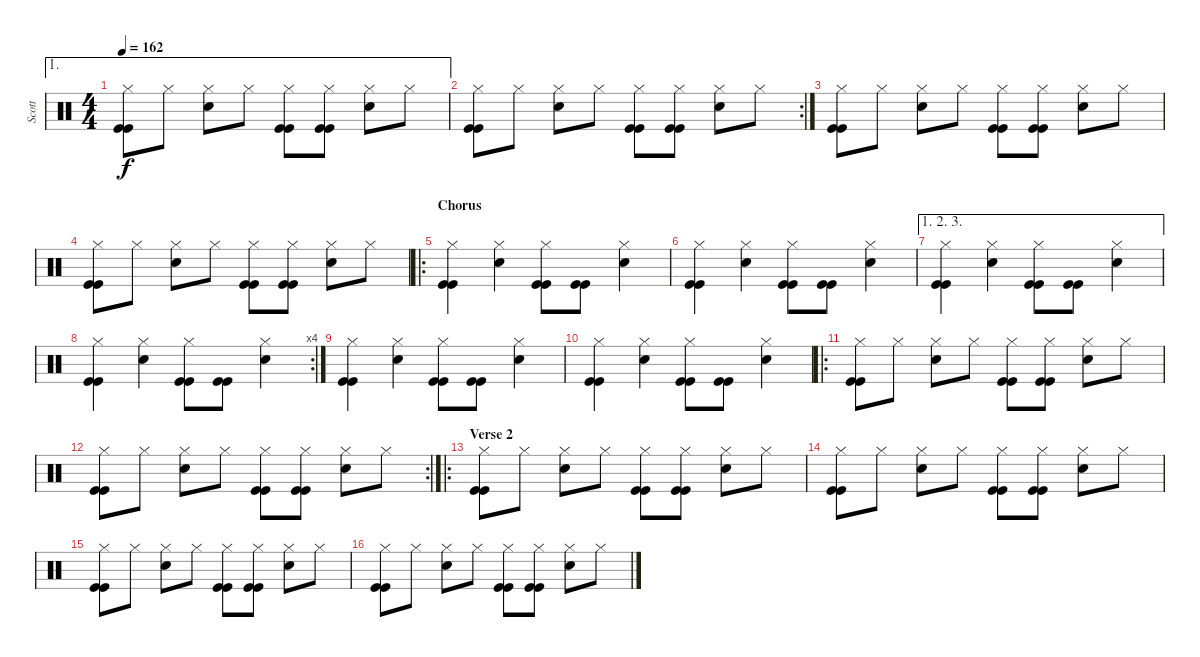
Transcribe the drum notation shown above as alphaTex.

\track ("Scott" "Scott") {instrument percussion}
\staff {score}
\articulation defaults
\ae 1
\ts (4 4)
\tempo 162
\clef neutral
\ks c
("Hi-Hat (closed)" "Kick (hit)" "Kick (hit)").8{dy f} "Hi-Hat (closed)".8 ("Hi-Hat (closed)" "Snare (hit) 2").8 "Hi-Hat (closed)".8 ("Hi-Hat (closed)" "Kick (hit)" "Kick (hit)").8 ("Hi-Hat (closed)" "Kick (hit)" "Kick (hit)").8 ("Hi-Hat (closed)" "Snare (hit) 2").8 "Hi-Hat (closed)".8 |
\rc 2
("Hi-Hat (closed)" "Kick (hit)" "Kick (hit)").8 "Hi-Hat (closed)".8 ("Hi-Hat (closed)" "Snare (hit) 2").8 "Hi-Hat (closed)".8 ("Hi-Hat (closed)" "Kick (hit)" "Kick (hit)").8 ("Hi-Hat (closed)" "Kick (hit)" "Kick (hit)").8 ("Hi-Hat (closed)" "Snare (hit) 2").8 "Hi-Hat (closed)".8 |
("Hi-Hat (closed)" "Kick (hit)" "Kick (hit)").8 "Hi-Hat (closed)".8 ("Hi-Hat (closed)" "Snare (hit) 2").8 "Hi-Hat (closed)".8 ("Hi-Hat (closed)" "Kick (hit)" "Kick (hit)").8 ("Hi-Hat (closed)" "Kick (hit)" "Kick (hit)").8 ("Hi-Hat (closed)" "Snare (hit) 2").8 "Hi-Hat (closed)".8 |
("Hi-Hat (closed)" "Kick (hit)" "Kick (hit)").8 "Hi-Hat (closed)".8 ("Hi-Hat (closed)" "Snare (hit) 2").8 "Hi-Hat (closed)".8 ("Hi-Hat (closed)" "Kick (hit)" "Kick (hit)").8 ("Hi-Hat (closed)" "Kick (hit)" "Kick (hit)").8 ("Hi-Hat (closed)" "Snare (hit) 2").8 "Hi-Hat (closed)".8 |
\ro
\section ("" "Chorus")
("Hi-Hat (closed)" "Kick (hit)" "Kick (hit)").4 ("Hi-Hat (closed)" "Snare (hit) 2").4 ("Hi-Hat (closed)" "Kick (hit)" "Kick (hit)").8 ("Kick (hit)" "Kick (hit)").8 ("Hi-Hat (closed)" "Snare (hit) 2").4 |
("Hi-Hat (closed)" "Kick (hit)" "Kick (hit)").4 ("Hi-Hat (closed)" "Snare (hit) 2").4 ("Hi-Hat (closed)" "Kick (hit)" "Kick (hit)").8 ("Kick (hit)" "Kick (hit)").8 ("Hi-Hat (closed)" "Snare (hit) 2").4 |
\ae (1 2 3)
("Hi-Hat (closed)" "Kick (hit)" "Kick (hit)").4 ("Hi-Hat (closed)" "Snare (hit) 2").4 ("Hi-Hat (closed)" "Kick (hit)" "Kick (hit)").8 ("Kick (hit)" "Kick (hit)").8 ("Hi-Hat (closed)" "Snare (hit) 2").4 |
\rc 4
("Hi-Hat (closed)" "Kick (hit)" "Kick (hit)").4 ("Hi-Hat (closed)" "Snare (hit) 2").4 ("Hi-Hat (closed)" "Kick (hit)" "Kick (hit)").8 ("Kick (hit)" "Kick (hit)").8 ("Hi-Hat (closed)" "Snare (hit) 2").4 |
("Hi-Hat (closed)" "Kick (hit)" "Kick (hit)").4 ("Hi-Hat (closed)" "Snare (hit) 2").4 ("Hi-Hat (closed)" "Kick (hit)" "Kick (hit)").8 ("Kick (hit)" "Kick (hit)").8 ("Hi-Hat (closed)" "Snare (hit) 2").4 |
("Hi-Hat (closed)" "Kick (hit)" "Kick (hit)").4 ("Hi-Hat (closed)" "Snare (hit) 2").4 ("Hi-Hat (closed)" "Kick (hit)" "Kick (hit)").8 ("Kick (hit)" "Kick (hit)").8 ("Hi-Hat (closed)" "Snare (hit) 2").4 |
\ro
("Hi-Hat (closed)" "Kick (hit)" "Kick (hit)").8 "Hi-Hat (closed)".8 ("Hi-Hat (closed)" "Snare (hit) 2").8 "Hi-Hat (closed)".8 ("Hi-Hat (closed)" "Kick (hit)" "Kick (hit)").8 ("Hi-Hat (closed)" "Kick (hit)" "Kick (hit)").8 ("Hi-Hat (closed)" "Snare (hit) 2").8 "Hi-Hat (closed)".8 |
\rc 2
("Hi-Hat (closed)" "Kick (hit)" "Kick (hit)").8 "Hi-Hat (closed)".8 ("Hi-Hat (closed)" "Snare (hit) 2").8 "Hi-Hat (closed)".8 ("Hi-Hat (closed)" "Kick (hit)" "Kick (hit)").8 ("Hi-Hat (closed)" "Kick (hit)" "Kick (hit)").8 ("Hi-Hat (closed)" "Snare (hit) 2").8 "Hi-Hat (closed)".8 |
\ro
\section ("" "Verse 2")
("Hi-Hat (closed)" "Kick (hit)" "Kick (hit)").8 "Hi-Hat (closed)".8 ("Hi-Hat (closed)" "Snare (hit) 2").8 "Hi-Hat (closed)".8 ("Hi-Hat (closed)" "Kick (hit)" "Kick (hit)").8 ("Hi-Hat (closed)" "Kick (hit)" "Kick (hit)").8 ("Hi-Hat (closed)" "Snare (hit) 2").8 "Hi-Hat (closed)".8 |
("Hi-Hat (closed)" "Kick (hit)" "Kick (hit)").8 "Hi-Hat (closed)".8 ("Hi-Hat (closed)" "Snare (hit) 2").8 "Hi-Hat (closed)".8 ("Hi-Hat (closed)" "Kick (hit)" "Kick (hit)").8 ("Hi-Hat (closed)" "Kick (hit)" "Kick (hit)").8 ("Hi-Hat (closed)" "Snare (hit) 2").8 "Hi-Hat (closed)".8 |
("Hi-Hat (closed)" "Kick (hit)" "Kick (hit)").8 "Hi-Hat (closed)".8 ("Hi-Hat (closed)" "Snare (hit) 2").8 "Hi-Hat (closed)".8 ("Hi-Hat (closed)" "Kick (hit)" "Kick (hit)").8 ("Hi-Hat (closed)" "Kick (hit)" "Kick (hit)").8 ("Hi-Hat (closed)" "Snare (hit) 2").8 "Hi-Hat (closed)".8 |
("Hi-Hat (closed)" "Kick (hit)" "Kick (hit)").8 "Hi-Hat (closed)".8 ("Hi-Hat (closed)" "Snare (hit) 2").8 "Hi-Hat (closed)".8 ("Hi-Hat (closed)" "Kick (hit)" "Kick (hit)").8 ("Hi-Hat (closed)" "Kick (hit)" "Kick (hit)").8 ("Hi-Hat (closed)" "Snare (hit) 2").8 "Hi-Hat (closed)".8
